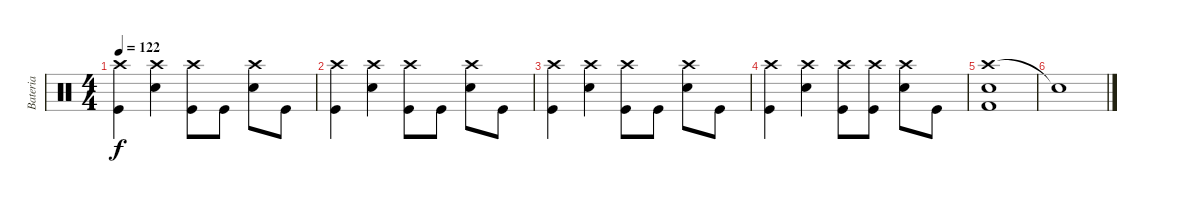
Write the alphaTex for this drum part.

\track ("Bateria" "Bateria") {instrument percussion}
\staff {score}
\articulation defaults
\ts (4 4)
\tempo 122
\clef neutral
\ks c
("Crash high (hit)" "Kick (hit)").4{dy f} ("Crash high (hit)" "Snare (hit) 2").4 ("Crash high (hit)" "Kick (hit)").8 "Kick (hit)".8 ("Crash high (hit)" "Snare (hit) 2").8 "Kick (hit)".8 |
("Crash high (hit)" "Kick (hit)").4 ("Crash high (hit)" "Snare (hit) 2").4 ("Crash high (hit)" "Kick (hit)").8 "Kick (hit)".8 ("Crash high (hit)" "Snare (hit) 2").8 "Kick (hit)".8 |
("Crash high (hit)" "Kick (hit)").4 ("Crash high (hit)" "Snare (hit) 2").4 ("Crash high (hit)" "Kick (hit)").8 "Kick (hit)".8 ("Crash high (hit)" "Snare (hit) 2").8 "Kick (hit)".8 |
("Crash high (hit)" "Kick (hit)").4 ("Crash high (hit)" "Snare (hit) 2").4 ("Crash high (hit)" "Kick (hit)").8 ("Crash high (hit)" "Kick (hit)").8 ("Crash high (hit)" "Snare (hit) 2").8 "Kick (hit)".8 |
("Crash high (hit)" "Kick (hit) 2" "Snare (hit) 2").1 |
"Snare (hit)"{t}.1
